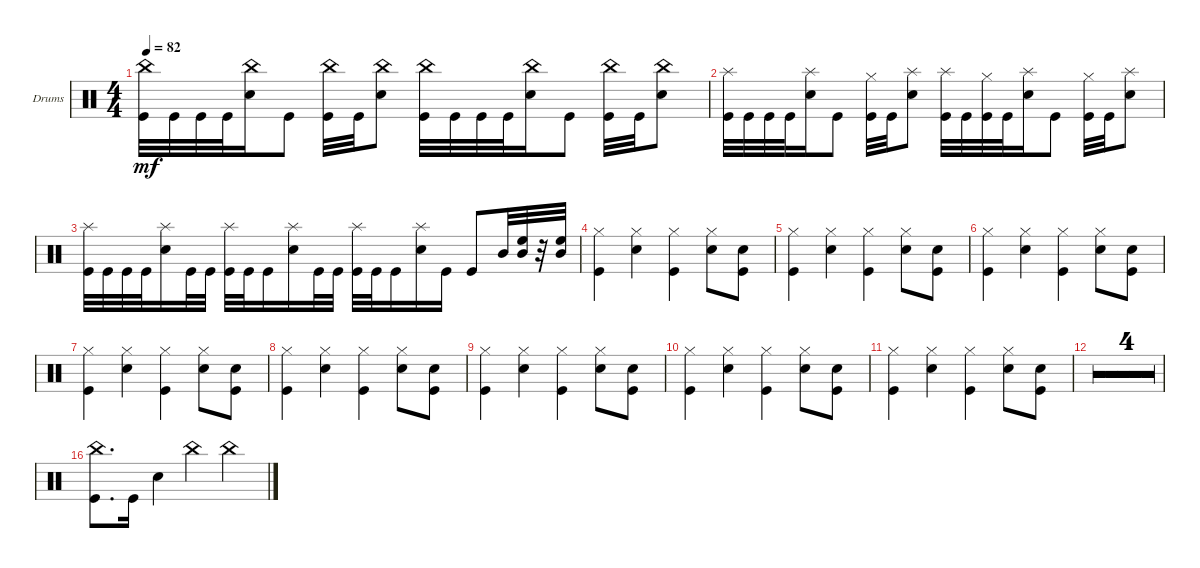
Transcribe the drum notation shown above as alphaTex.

\bracketExtendMode groupsimilarinstruments
\firstSystemTrackNameOrientation horizontal
\otherSystemsTrackNameOrientation horizontal
\track ("Drumkit" "Drums") {multiBarRest instrument percussion}
\staff {score}
\articulation defaults
\ts (4 4)
\tempo 82
\clef neutral
\ks c
("Kick (hit)" "China (hit)").32{dy mf} "Kick (hit)".32 "Kick (hit)".32 "Kick (hit)".32 ("Snare (hit) 2" "China (hit)").16 "Kick (hit)".8 ("Kick (hit)" "China (hit)").32 "Kick (hit)".32 ("Snare (hit) 2" "China (hit)").8 ("Kick (hit)" "China (hit)").32 "Kick (hit)".32 "Kick (hit)".32 "Kick (hit)".32 ("Snare (hit) 2" "China (hit)").16 "Kick (hit)".8 ("Kick (hit)" "China (hit)").32 "Kick (hit)".32 ("Snare (hit) 2" "China (hit)").8 |
("Kick (hit)" "Splash (hit)").32 "Kick (hit)".32 "Kick (hit)".32 "Kick (hit)".32 ("Snare (hit) 2" "Splash (hit)").16 "Kick (hit)".8 ("Kick (hit)" "Hi-Hat (closed)").32 "Kick (hit)".32 ("Snare (hit) 2" "Splash (hit)").8 ("Kick (hit)" "Splash (hit)").32 "Kick (hit)".32 ("Kick (hit)" "Hi-Hat (closed)").32 "Kick (hit)".32 ("Snare (hit) 2" "Splash (hit)").16 "Kick (hit)".8 ("Kick (hit)" "Hi-Hat (closed)").32 "Kick (hit)".32 ("Snare (hit) 2" "Splash (hit)").8 |
("Kick (hit)" "Splash (hit)").32 "Kick (hit)".32 "Kick (hit)".32 "Kick (hit)".32 ("Snare (hit) 2" "Splash (hit)").16 "Kick (hit)".32 "Kick (hit)".32 ("Kick (hit)" "Splash (hit)").32 "Kick (hit)".32 "Kick (hit)".16 ("Snare (hit) 2" "Splash (hit)").16 "Kick (hit)".32 "Kick (hit)".32 ("Kick (hit)" "Splash (hit)").32 "Kick (hit)".32 "Kick (hit)".16 ("Snare (hit) 2" "Splash (hit)").16 "Kick (hit)".16 "Kick (hit)".8 "Mid Tom (hit)".32 ("Mid Tom (hit)" "High Floor Tom (hit)").32 r.32 ("Mid Tom (hit)" "High Floor Tom (hit)").32 |
("Kick (hit)" "Hi-Hat (closed)").4 ("Snare (hit) 2" "Hi-Hat (closed)").4 ("Kick (hit)" "Hi-Hat (closed)").4 ("Hi-Hat (closed)" "Snare (hit) 2").8 ("Snare (hit) 2" "Kick (hit)").8 |
("Kick (hit)" "Hi-Hat (closed)").4 ("Snare (hit) 2" "Hi-Hat (closed)").4 ("Kick (hit)" "Hi-Hat (closed)").4 ("Hi-Hat (closed)" "Snare (hit) 2").8 ("Snare (hit) 2" "Kick (hit)").8 |
("Kick (hit)" "Hi-Hat (closed)").4 ("Snare (hit) 2" "Hi-Hat (closed)").4 ("Kick (hit)" "Hi-Hat (closed)").4 ("Hi-Hat (closed)" "Snare (hit) 2").8 ("Snare (hit) 2" "Kick (hit)").8 |
("Kick (hit)" "Hi-Hat (closed)").4 ("Snare (hit) 2" "Hi-Hat (closed)").4 ("Kick (hit)" "Hi-Hat (closed)").4 ("Hi-Hat (closed)" "Snare (hit) 2").8 ("Snare (hit) 2" "Kick (hit)").8 |
("Kick (hit)" "Hi-Hat (closed)").4 ("Snare (hit) 2" "Hi-Hat (closed)").4 ("Kick (hit)" "Hi-Hat (closed)").4 ("Hi-Hat (closed)" "Snare (hit) 2").8 ("Snare (hit) 2" "Kick (hit)").8 |
("Kick (hit)" "Hi-Hat (closed)").4 ("Snare (hit) 2" "Hi-Hat (closed)").4 ("Kick (hit)" "Hi-Hat (closed)").4 ("Hi-Hat (closed)" "Snare (hit) 2").8 ("Snare (hit) 2" "Kick (hit)").8 |
("Kick (hit)" "Hi-Hat (closed)").4 ("Snare (hit) 2" "Hi-Hat (closed)").4 ("Kick (hit)" "Hi-Hat (closed)").4 ("Hi-Hat (closed)" "Snare (hit) 2").8 ("Snare (hit) 2" "Kick (hit)").8 |
("Kick (hit)" "Hi-Hat (closed)").4 ("Snare (hit) 2" "Hi-Hat (closed)").4 ("Kick (hit)" "Hi-Hat (closed)").4 ("Hi-Hat (closed)" "Snare (hit) 2").8 ("Snare (hit) 2" "Kick (hit)").8 |
|
|
|
|
("Kick (hit)" "China (hit)").8{d} "Kick (hit)".16 "Snare (hit) 2".4 "China (hit)".4 "China (hit)".4
